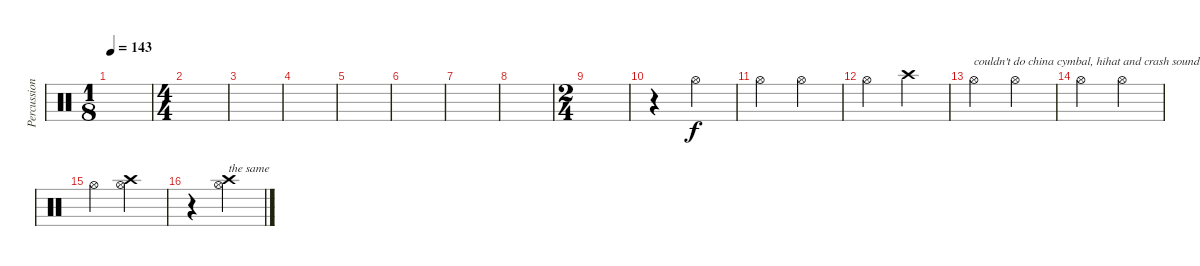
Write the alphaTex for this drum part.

\track ("Percussion2" "Percussion") {instrument percussion}
\staff {score}
\articulation defaults
\ts (1 8)
\tempo 143
\clef neutral
\ks c
|
\ts (4 4)
|
|
|
|
|
|
|
\ts (2 4)
|
r.4 "Hi-Hat (open)".4 |
"Hi-Hat (open)".4 "Hi-Hat (open)".4 |
"Hi-Hat (open)".4 "Crash high (hit)".4 |
"Hi-Hat (open)".4{txt "couldn't do china cymbal, hihat and crash sound"} "Hi-Hat (open)".4 |
"Hi-Hat (open)".4 "Hi-Hat (open)".4 |
"Hi-Hat (open)".4 ("Crash high (hit)" "Hi-Hat (open)").4 |
r.4 ("Crash high (hit)" "Hi-Hat (open)").4{txt "the same"}
